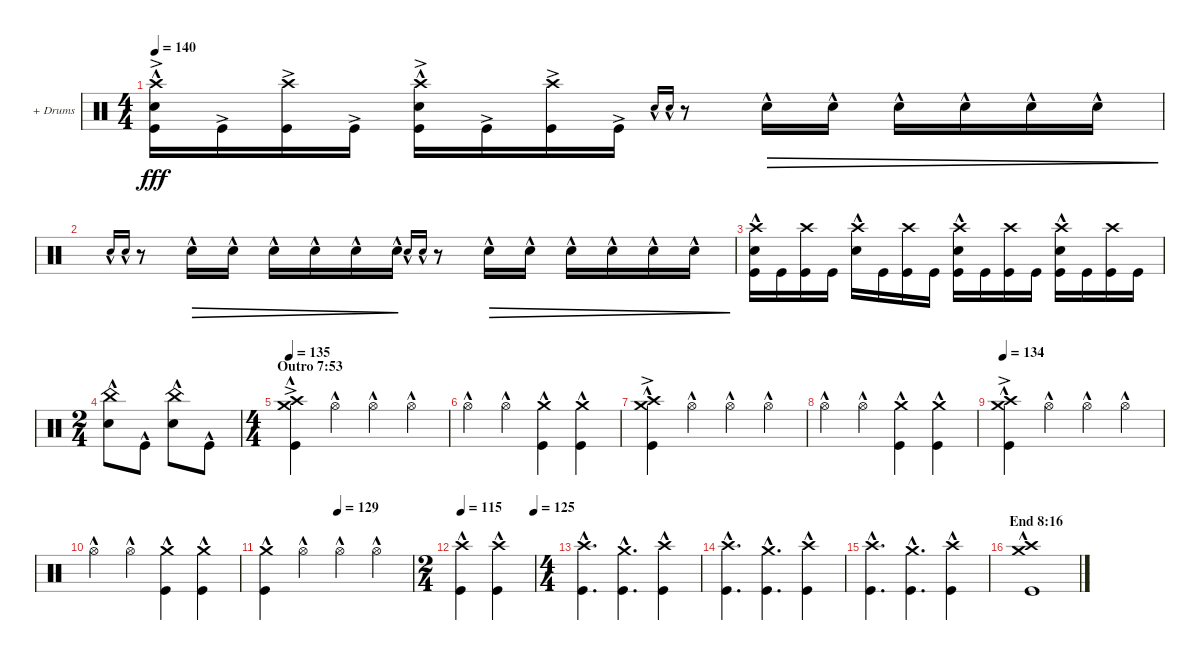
\defaultSystemsLayout 4
\bracketExtendMode groupsimilarinstruments
\firstSystemTrackNameOrientation horizontal
\otherSystemsTrackNameOrientation horizontal
\track ("+ Drums" "+ Drums") {instrument percussion}
\staff {score}
\articulation defaults
\ts (4 4)
\tempo 140
\clef neutral
\ks c
("Crash high (hit)" "Snare (hit) 2"{hac} "Kick (hit)"{ac}).16{dy fff} "Kick (hit)"{ac}.16 ("Crash high (hit)" "Kick (hit)"{ac}).16 "Kick (hit)"{ac}.16 ("Crash high (hit)" "Snare (hit) 2"{hac} "Kick (hit)"{ac}).16 "Kick (hit)"{ac}.16 ("Crash high (hit)" "Kick (hit)"{ac}).16 "Kick (hit)"{ac}.16 "Snare (hit) 2"{hac}.16{gr onbeat} "Snare (hit) 2"{hac}.16{gr onbeat} r.8 "Snare (hit) 2"{hac}.16{dec} "Snare (hit) 2"{hac}.16{dec} "Snare (hit) 2"{hac}.16{dec} "Snare (hit) 2"{hac}.16{dec} "Snare (hit) 2"{hac}.16{dec} "Snare (hit) 2"{hac}.16{dec} |
"Snare (hit) 2"{hac}.16{gr onbeat} "Snare (hit) 2"{hac}.16{gr onbeat} r.8 "Snare (hit) 2"{hac}.16{dec} "Snare (hit) 2"{hac}.16{dec} "Snare (hit) 2"{hac}.16{dec} "Snare (hit) 2"{hac}.16{dec} "Snare (hit) 2"{hac}.16{dec} "Snare (hit) 2"{hac}.16{dec} "Snare (hit) 2"{hac}.16{gr onbeat} "Snare (hit) 2"{hac}.16{gr onbeat} r.8 "Snare (hit) 2"{hac}.16{dec} "Snare (hit) 2"{hac}.16{dec} "Snare (hit) 2"{hac}.16{dec} "Snare (hit) 2"{hac}.16{dec} "Snare (hit) 2"{hac}.16{dec} "Snare (hit) 2"{hac}.16{dec} |
("Crash high (hit)" "Snare (hit) 2"{hac} "Kick (hit)").16 "Kick (hit)".16 ("Crash high (hit)" "Kick (hit)").16 "Kick (hit)".16 ("Crash high (hit)" "Snare (hit) 2"{hac}).16 "Kick (hit)".16 ("Crash high (hit)" "Kick (hit)").16 "Kick (hit)".16 ("Crash high (hit)" "Snare (hit) 2"{hac} "Kick (hit)").16 "Kick (hit)".16 ("Crash high (hit)" "Kick (hit)").16 "Kick (hit)".16 ("Crash high (hit)" "Snare (hit) 2"{hac} "Kick (hit)").16 "Kick (hit)".16 ("Crash high (hit)" "Kick (hit)").16 "Kick (hit)".16 |
\ts (2 4)
("Snare (hit) 2"{hac} "China (hit)"{hac}).8 "Kick (hit)"{hac}.8 ("Snare (hit) 2"{hac} "China (hit)"{hac}).8 "Kick (hit)"{hac}.8 |
\ts (4 4)
\section ("" "Outro 7:53")
\tempo 135
("Crash high (hit)"{ac} "Crash medium (hit)"{ac} "Kick (hit)"{hac}).4 "Hi-Hat (open)"{hac}.4 "Hi-Hat (open)"{hac}.4 "Hi-Hat (open)"{hac}.4 |
"Hi-Hat (open)"{hac}.4 "Hi-Hat (open)"{hac}.4 ("Crash medium (hit)"{hac} "Kick (hit)"{hac}).4 ("Crash medium (hit)"{hac} "Kick (hit)"{hac}).4 |
("Crash high (hit)"{hac} "Crash medium (hit)"{ac} "Kick (hit)"{hac}).4 "Hi-Hat (open)"{hac}.4 "Hi-Hat (open)"{hac}.4 "Hi-Hat (open)"{hac}.4 |
"Hi-Hat (open)"{hac}.4 "Hi-Hat (open)"{hac}.4 ("Crash medium (hit)"{hac} "Kick (hit)"{hac}).4 ("Crash medium (hit)"{hac} "Kick (hit)"{hac}).4 |
\tempo 134
("Crash high (hit)"{hac} "Crash medium (hit)"{ac} "Kick (hit)"{hac}).4 "Hi-Hat (open)"{hac}.4 "Hi-Hat (open)"{hac}.4 "Hi-Hat (open)"{hac}.4 |
"Hi-Hat (open)"{hac}.4 "Hi-Hat (open)"{hac}.4 ("Crash medium (hit)"{hac} "Kick (hit)"{hac}).4 ("Crash medium (hit)"{hac} "Kick (hit)"{hac}).4 |
\tempo (129 0.49375)
("Crash medium (hit)"{hac} "Kick (hit)"{hac}).4 "Hi-Hat (open)"{hac}.4 "Hi-Hat (open)"{hac}.4 "Hi-Hat (open)"{hac}.4 |
\ts (2 4)
\tempo 115
\tempo (125 1)
("Crash high (hit)"{hac} "Kick (hit)"{hac}).4 ("Crash high (hit)"{hac} "Kick (hit)"{hac}).4 |
\ts (4 4)
("Crash high (hit)"{hac} "Kick (hit)"{hac}).4{d} ("Crash medium (hit)"{hac} "Kick (hit)"{hac}).4{d} ("Crash high (hit)"{hac} "Kick (hit)"{hac}).4 |
("Crash high (hit)"{hac} "Kick (hit)"{hac}).4{d} ("Crash medium (hit)"{hac} "Kick (hit)"{hac}).4{d} ("Crash high (hit)"{hac} "Kick (hit)"{hac}).4 |
("Crash high (hit)"{hac} "Kick (hit)"{hac}).4{d} ("Crash medium (hit)"{hac} "Kick (hit)"{hac}).4{d} ("Crash high (hit)"{hac} "Kick (hit)"{hac}).4 |
\section ("" "End 8:16")
("Crash high (hit)"{hac} "Kick (hit)"{hac} "Crash medium (hit)"{hac}).1
